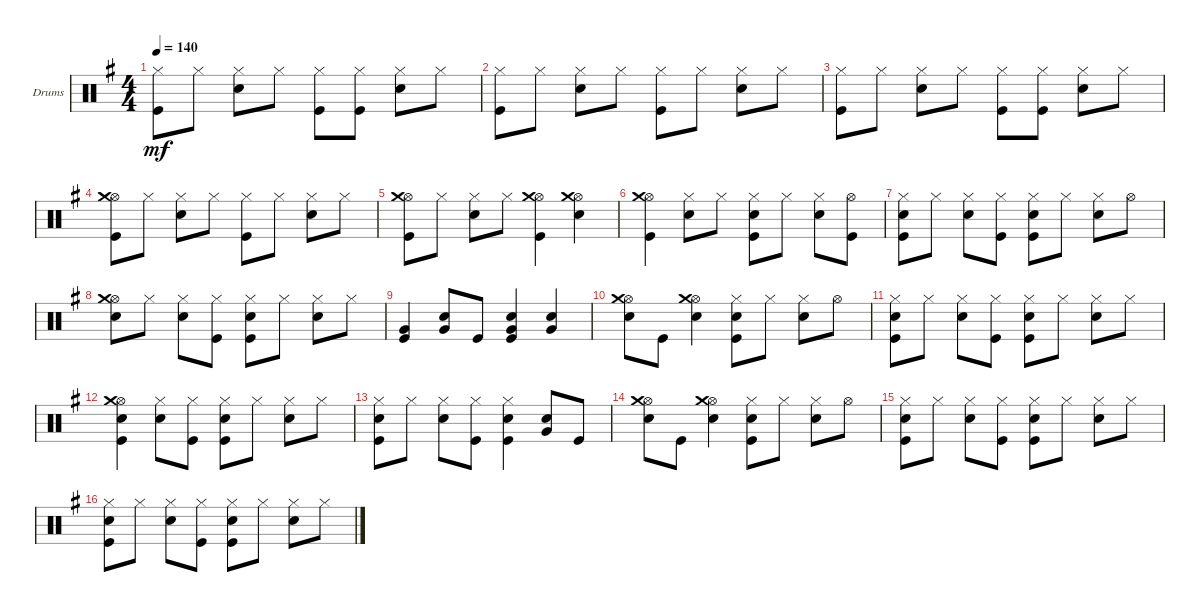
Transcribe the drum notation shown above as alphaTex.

\defaultSystemsLayout 4
\bracketExtendMode groupsimilarinstruments
\firstSystemTrackNameOrientation horizontal
\otherSystemsTrackNameOrientation horizontal
\track ("Drumkit" "Drums") {instrument percussion}
\staff {score}
\articulation defaults
\ts (4 4)
\tempo 140
\clef neutral
\ks g
("Hi-Hat (closed)" "Kick (hit)").8{dy mf} "Hi-Hat (closed)".8 ("Hi-Hat (closed)" "Snare (hit) 2").8 "Hi-Hat (closed)".8 ("Hi-Hat (closed)" "Kick (hit)").8 ("Kick (hit)" "Hi-Hat (closed)").8 ("Hi-Hat (closed)" "Snare (hit) 2").8 "Hi-Hat (closed)".8 |
("Hi-Hat (closed)" "Kick (hit)").8 "Hi-Hat (closed)".8 ("Hi-Hat (closed)" "Snare (hit) 2").8 "Hi-Hat (closed)".8 ("Kick (hit)" "Hi-Hat (closed)").8 "Hi-Hat (closed)".8 ("Hi-Hat (closed)" "Snare (hit) 2").8 "Hi-Hat (closed)".8 |
("Hi-Hat (closed)" "Kick (hit)").8 "Hi-Hat (closed)".8 ("Hi-Hat (closed)" "Snare (hit) 2").8 "Hi-Hat (closed)".8 ("Kick (hit)" "Hi-Hat (closed)").8 ("Hi-Hat (closed)" "Kick (hit)").8 ("Hi-Hat (closed)" "Snare (hit) 2").8 "Hi-Hat (closed)".8 |
("Kick (hit)" "Hi-Hat (open)" "Crash medium (hit)").8 "Hi-Hat (closed)".8 ("Hi-Hat (closed)" "Snare (hit) 2").8 "Hi-Hat (closed)".8 ("Hi-Hat (closed)" "Kick (hit)").8 "Hi-Hat (closed)".8 ("Hi-Hat (closed)" "Snare (hit) 2").8 "Hi-Hat (closed)".8 |
("Hi-Hat (open)" "Crash medium (hit)" "Kick (hit)").8 "Hi-Hat (closed)".8 ("Hi-Hat (closed)" "Snare (hit) 2").8 "Hi-Hat (closed)".8 ("Hi-Hat (open)" "Crash medium (hit)" "Kick (hit)").4 ("Snare (hit) 2" "Hi-Hat (open)" "Crash medium (hit)").4 |
("Hi-Hat (open)" "Kick (hit)" "Crash medium (hit)").4 ("Hi-Hat (closed)" "Snare (hit) 2").8 "Hi-Hat (closed)".8 ("Hi-Hat (closed)" "Snare (hit) 2" "Kick (hit)").8 "Hi-Hat (closed)".8 ("Hi-Hat (closed)" "Snare (hit) 2").8 ("Hi-Hat (open)" "Kick (hit)").8 |
("Kick (hit)" "Snare (hit) 2" "Hi-Hat (closed)").8 "Hi-Hat (closed)".8 ("Hi-Hat (closed)" "Snare (hit) 2").8 ("Hi-Hat (closed)" "Kick (hit)").8 ("Snare (hit) 2" "Hi-Hat (closed)" "Kick (hit)").8 "Hi-Hat (closed)".8 ("Hi-Hat (closed)" "Snare (hit) 2").8 "Hi-Hat (open)".8 |
("Hi-Hat (open)" "Crash medium (hit)" "Snare (hit) 2").8 "Hi-Hat (closed)".8 ("Hi-Hat (closed)" "Snare (hit) 2").8 ("Kick (hit)" "Hi-Hat (closed)").8 ("Hi-Hat (closed)" "Kick (hit)" "Snare (hit) 2").8 "Hi-Hat (closed)".8 ("Hi-Hat (closed)" "Snare (hit) 2").8 "Hi-Hat (closed)".8 |
("Kick (hit)" "Very Low Tom (hit)").4 ("Very Low Tom (hit)" "Snare (hit) 2").8 "Kick (hit)".8 ("Kick (hit)" "Very Low Tom (hit)" "Snare (hit) 2").4 ("Snare (hit) 2" "Very Low Tom (hit)").4 |
("Hi-Hat (open)" "Crash medium (hit)" "Snare (hit) 2").8 "Kick (hit)".8 ("Snare (hit) 2" "Hi-Hat (open)" "Crash medium (hit)").4 ("Hi-Hat (closed)" "Snare (hit) 2" "Kick (hit)").8 "Hi-Hat (closed)".8 ("Hi-Hat (closed)" "Snare (hit) 2").8 "Hi-Hat (open)".8 |
("Hi-Hat (closed)" "Snare (hit) 2" "Kick (hit)").8 "Hi-Hat (closed)".8 ("Hi-Hat (closed)" "Snare (hit) 2").8 ("Kick (hit)" "Hi-Hat (closed)").8 ("Hi-Hat (closed)" "Snare (hit) 2" "Kick (hit)").8 "Hi-Hat (closed)".8 ("Hi-Hat (closed)" "Snare (hit) 2").8 "Hi-Hat (closed)".8 |
("Hi-Hat (open)" "Crash medium (hit)" "Snare (hit) 2" "Kick (hit)").4 ("Snare (hit) 2" "Hi-Hat (closed)").8 ("Hi-Hat (closed)" "Kick (hit)").8 ("Kick (hit)" "Snare (hit) 2" "Hi-Hat (closed)").8 "Hi-Hat (closed)".8 ("Hi-Hat (closed)" "Snare (hit) 2").8 "Hi-Hat (closed)".8 |
("Snare (hit) 2" "Kick (hit)" "Hi-Hat (closed)").8 "Hi-Hat (closed)".8 ("Hi-Hat (closed)" "Snare (hit) 2").8 ("Kick (hit)" "Hi-Hat (closed)").8 ("Hi-Hat (closed)" "Snare (hit) 2" "Kick (hit)").4 ("Very Low Tom (hit)" "Snare (hit) 2").8 "Kick (hit)".8 |
("Hi-Hat (open)" "Crash medium (hit)" "Snare (hit) 2").8 "Kick (hit)".8 ("Snare (hit) 2" "Hi-Hat (open)" "Crash medium (hit)").4 ("Hi-Hat (closed)" "Snare (hit) 2" "Kick (hit)").8 "Hi-Hat (closed)".8 ("Hi-Hat (closed)" "Snare (hit) 2").8 "Hi-Hat (open)".8 |
("Hi-Hat (closed)" "Snare (hit) 2" "Kick (hit)").8 "Hi-Hat (closed)".8 ("Hi-Hat (closed)" "Snare (hit) 2").8 ("Kick (hit)" "Hi-Hat (closed)").8 ("Hi-Hat (closed)" "Snare (hit) 2" "Kick (hit)").8 "Hi-Hat (closed)".8 ("Hi-Hat (closed)" "Snare (hit) 2").8 "Hi-Hat (closed)".8 |
("Hi-Hat (closed)" "Snare (hit) 2" "Kick (hit)").8 "Hi-Hat (closed)".8 ("Hi-Hat (closed)" "Snare (hit) 2").8 ("Hi-Hat (closed)" "Kick (hit)").8 ("Hi-Hat (closed)" "Snare (hit) 2" "Kick (hit)").8 "Hi-Hat (closed)".8 ("Hi-Hat (closed)" "Snare (hit) 2").8 "Hi-Hat (closed)".8
